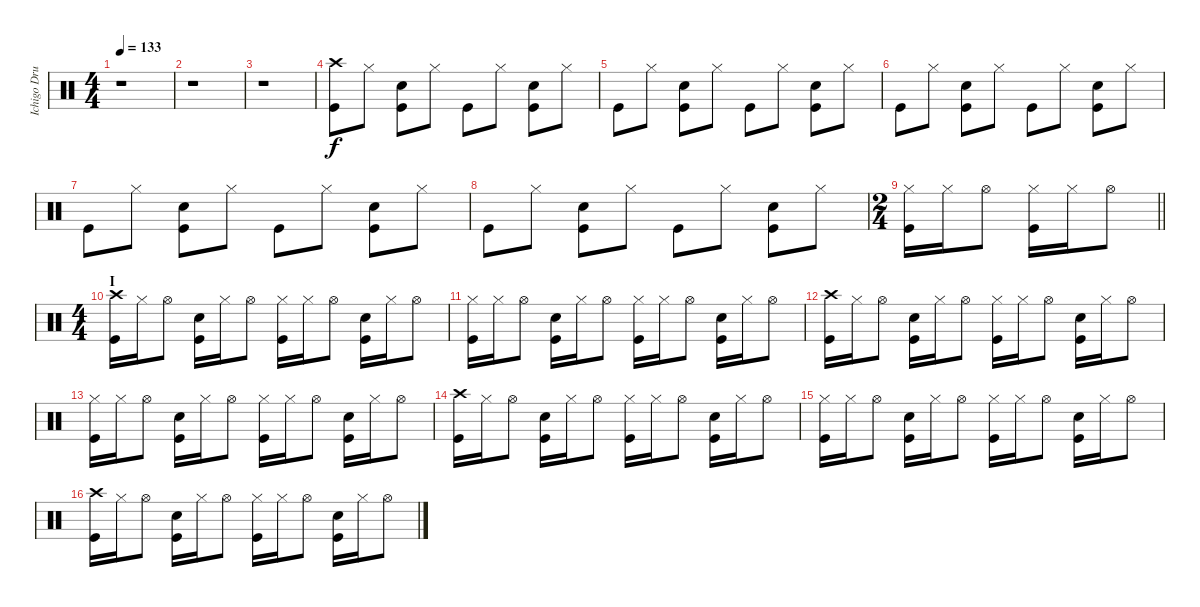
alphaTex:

\track ("Ichigo Drums" "Ichigo Dru") {instrument percussion}
\staff {score}
\articulation defaults
\ts (4 4)
\tempo 133
\clef neutral
\ks c
r.1{dy f} |
r.1 |
r.1 |
("Crash high (hit)" "Kick (hit)").8 "Hi-Hat (closed)".8 ("Snare (hit) 2" "Kick (hit)").8 "Hi-Hat (closed)".8 "Kick (hit)".8 "Hi-Hat (closed)".8 ("Snare (hit) 2" "Kick (hit)").8 "Hi-Hat (closed)".8 |
"Kick (hit)".8 "Hi-Hat (closed)".8 ("Snare (hit) 2" "Kick (hit)").8 "Hi-Hat (closed)".8 "Kick (hit)".8 "Hi-Hat (closed)".8 ("Snare (hit) 2" "Kick (hit)").8 "Hi-Hat (closed)".8 |
"Kick (hit)".8 "Hi-Hat (closed)".8 ("Snare (hit) 2" "Kick (hit)").8 "Hi-Hat (closed)".8 "Kick (hit)".8 "Hi-Hat (closed)".8 ("Snare (hit) 2" "Kick (hit)").8 "Hi-Hat (closed)".8 |
"Kick (hit)".8 "Hi-Hat (closed)".8 ("Snare (hit) 2" "Kick (hit)").8 "Hi-Hat (closed)".8 "Kick (hit)".8 "Hi-Hat (closed)".8 ("Snare (hit) 2" "Kick (hit)").8 "Hi-Hat (closed)".8 |
"Kick (hit)".8 "Hi-Hat (closed)".8 ("Snare (hit) 2" "Kick (hit)").8 "Hi-Hat (closed)".8 "Kick (hit)".8 "Hi-Hat (closed)".8 ("Snare (hit) 2" "Kick (hit)").8 "Hi-Hat (closed)".8 |
\ts (2 4)
\barLineRight lightlight
("Hi-Hat (closed)" "Kick (hit)").16 "Hi-Hat (closed)".16 "Hi-Hat (open)".8 ("Hi-Hat (closed)" "Kick (hit)").16 "Hi-Hat (closed)".16 "Hi-Hat (open)".8 |
\ts (4 4)
\section ("" "I")
("Crash high (hit)" "Kick (hit)").16 "Hi-Hat (closed)".16 "Hi-Hat (open)".8 ("Snare (hit) 2" "Kick (hit)").16 "Hi-Hat (closed)".16 "Hi-Hat (open)".8 ("Hi-Hat (closed)" "Kick (hit)").16 "Hi-Hat (closed)".16 "Hi-Hat (open)".8 ("Snare (hit) 2" "Kick (hit)").16 "Hi-Hat (closed)".16 "Hi-Hat (open)".8 |
("Hi-Hat (closed)" "Kick (hit)").16 "Hi-Hat (closed)".16 "Hi-Hat (open)".8 ("Snare (hit) 2" "Kick (hit)").16 "Hi-Hat (closed)".16 "Hi-Hat (open)".8 ("Hi-Hat (closed)" "Kick (hit)").16 "Hi-Hat (closed)".16 "Hi-Hat (open)".8 ("Snare (hit) 2" "Kick (hit)").16 "Hi-Hat (closed)".16 "Hi-Hat (open)".8 |
("Crash high (hit)" "Kick (hit)").16 "Hi-Hat (closed)".16 "Hi-Hat (open)".8 ("Snare (hit) 2" "Kick (hit)").16 "Hi-Hat (closed)".16 "Hi-Hat (open)".8 ("Hi-Hat (closed)" "Kick (hit)").16 "Hi-Hat (closed)".16 "Hi-Hat (open)".8 ("Snare (hit) 2" "Kick (hit)").16 "Hi-Hat (closed)".16 "Hi-Hat (open)".8 |
("Hi-Hat (closed)" "Kick (hit)").16 "Hi-Hat (closed)".16 "Hi-Hat (open)".8 ("Snare (hit) 2" "Kick (hit)").16 "Hi-Hat (closed)".16 "Hi-Hat (open)".8 ("Hi-Hat (closed)" "Kick (hit)").16 "Hi-Hat (closed)".16 "Hi-Hat (open)".8 ("Snare (hit) 2" "Kick (hit)").16 "Hi-Hat (closed)".16 "Hi-Hat (open)".8 |
("Crash high (hit)" "Kick (hit)").16 "Hi-Hat (closed)".16 "Hi-Hat (open)".8 ("Snare (hit) 2" "Kick (hit)").16 "Hi-Hat (closed)".16 "Hi-Hat (open)".8 ("Hi-Hat (closed)" "Kick (hit)").16 "Hi-Hat (closed)".16 "Hi-Hat (open)".8 ("Snare (hit) 2" "Kick (hit)").16 "Hi-Hat (closed)".16 "Hi-Hat (open)".8 |
("Hi-Hat (closed)" "Kick (hit)").16 "Hi-Hat (closed)".16 "Hi-Hat (open)".8 ("Snare (hit) 2" "Kick (hit)").16 "Hi-Hat (closed)".16 "Hi-Hat (open)".8 ("Hi-Hat (closed)" "Kick (hit)").16 "Hi-Hat (closed)".16 "Hi-Hat (open)".8 ("Snare (hit) 2" "Kick (hit)").16 "Hi-Hat (closed)".16 "Hi-Hat (open)".8 |
("Crash high (hit)" "Kick (hit)").16 "Hi-Hat (closed)".16 "Hi-Hat (open)".8 ("Snare (hit) 2" "Kick (hit)").16 "Hi-Hat (closed)".16 "Hi-Hat (open)".8 ("Hi-Hat (closed)" "Kick (hit)").16 "Hi-Hat (closed)".16 "Hi-Hat (open)".8 ("Snare (hit) 2" "Kick (hit)").16 "Hi-Hat (closed)".16 "Hi-Hat (open)".8
